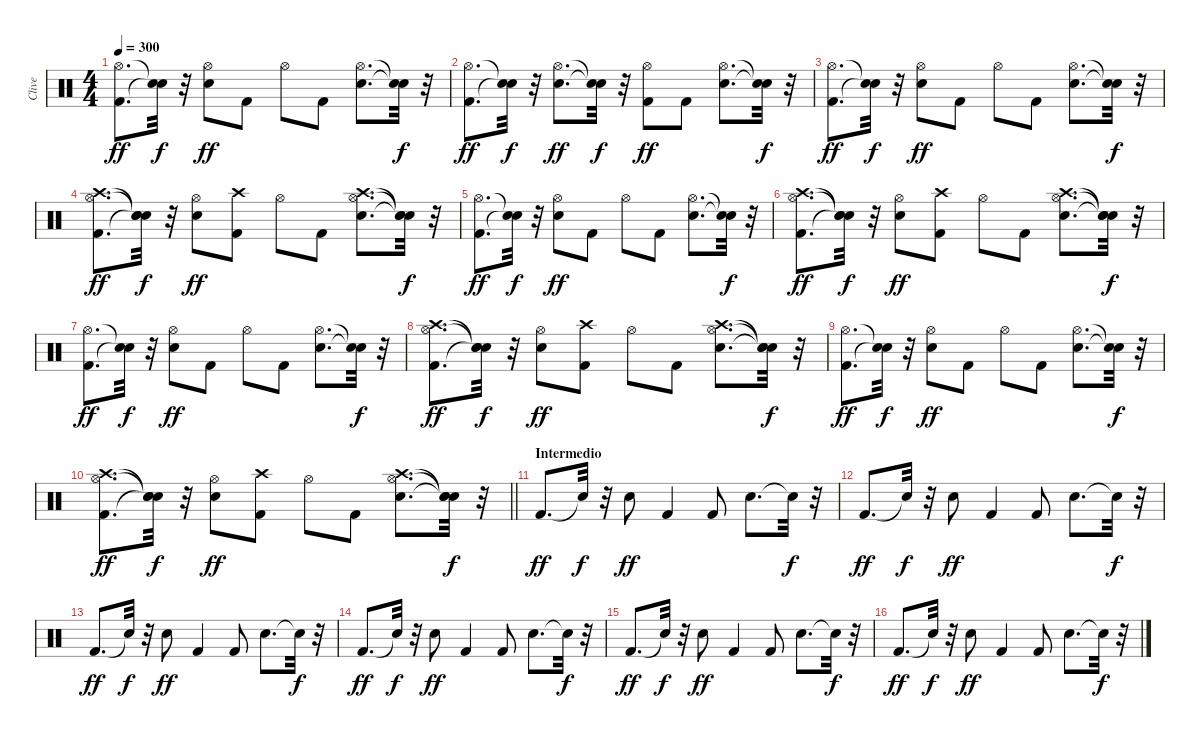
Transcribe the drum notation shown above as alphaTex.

\track ("Clive" "Clive") {instrument percussion}
\staff {score}
\articulation defaults
\ts (4 4)
\tempo 300
\clef neutral
\ks c
("Kick (hit) 2" "Hi-Hat (open)").8{d dy ff} ("Snare (hit)"{t} "Snare (hit)"{t}).32{dy f} r.32 ("Snare (hit) 2" "Hi-Hat (open)").8{dy ff} "Kick (hit) 2".8 "Hi-Hat (open)".8 "Kick (hit) 2".8 ("Snare (hit) 2" "Hi-Hat (open)").8{d} ("Snare (hit)"{t} "Snare (hit)"{t}).32{dy f} r.32 |
("Kick (hit) 2" "Hi-Hat (open)").8{d dy ff} ("Snare (hit)"{t} "Snare (hit)"{t}).32{dy f} r.32 ("Snare (hit) 2" "Hi-Hat (open)").8{d dy ff} ("Snare (hit)"{t} "Snare (hit)"{t}).32{dy f} r.32 ("Kick (hit) 2" "Hi-Hat (open)").8{dy ff} "Kick (hit) 2".8 ("Snare (hit) 2" "Hi-Hat (open)").8{d} ("Snare (hit)"{t} "Snare (hit)"{t}).32{dy f} r.32 |
("Kick (hit) 2" "Hi-Hat (open)").8{d dy ff} ("Snare (hit)"{t} "Snare (hit)"{t}).32{dy f} r.32 ("Snare (hit) 2" "Hi-Hat (open)").8{dy ff} "Kick (hit) 2".8 "Hi-Hat (open)".8 "Kick (hit) 2".8 ("Snare (hit) 2" "Hi-Hat (open)").8{d} ("Snare (hit)"{t} "Snare (hit)"{t}).32{dy f} r.32 |
("Kick (hit) 2" "Hi-Hat (open)" "Crash high (hit)").8{d dy ff} ("Snare (hit)"{t} "Snare (hit)"{t} "Snare (hit)"{t}).32{dy f} r.32 ("Snare (hit) 2" "Hi-Hat (open)").8{dy ff} ("Kick (hit) 2" "Crash high (hit)").8 "Hi-Hat (open)".8 "Kick (hit) 2".8 ("Snare (hit) 2" "Hi-Hat (open)" "Crash high (hit)").8{d} ("Snare (hit)"{t} "Snare (hit)"{t} "Snare (hit)"{t}).32{dy f} r.32 |
("Kick (hit) 2" "Hi-Hat (open)").8{d dy ff} ("Snare (hit)"{t} "Snare (hit)"{t}).32{dy f} r.32 ("Snare (hit) 2" "Hi-Hat (open)").8{dy ff} "Kick (hit) 2".8 "Hi-Hat (open)".8 "Kick (hit) 2".8 ("Snare (hit) 2" "Hi-Hat (open)").8{d} ("Snare (hit)"{t} "Snare (hit)"{t}).32{dy f} r.32 |
("Kick (hit) 2" "Hi-Hat (open)" "Crash high (hit)").8{d dy ff} ("Snare (hit)"{t} "Snare (hit)"{t} "Snare (hit)"{t}).32{dy f} r.32 ("Snare (hit) 2" "Hi-Hat (open)").8{dy ff} ("Kick (hit) 2" "Crash high (hit)").8 "Hi-Hat (open)".8 "Kick (hit) 2".8 ("Snare (hit) 2" "Hi-Hat (open)" "Crash high (hit)").8{d} ("Snare (hit)"{t} "Snare (hit)"{t} "Snare (hit)"{t}).32{dy f} r.32 |
("Kick (hit) 2" "Hi-Hat (open)").8{d dy ff} ("Snare (hit)"{t} "Snare (hit)"{t}).32{dy f} r.32 ("Snare (hit) 2" "Hi-Hat (open)").8{dy ff} "Kick (hit) 2".8 "Hi-Hat (open)".8 "Kick (hit) 2".8 ("Snare (hit) 2" "Hi-Hat (open)").8{d} ("Snare (hit)"{t} "Snare (hit)"{t}).32{dy f} r.32 |
("Kick (hit) 2" "Hi-Hat (open)" "Crash high (hit)").8{d dy ff} ("Snare (hit)"{t} "Snare (hit)"{t} "Snare (hit)"{t}).32{dy f} r.32 ("Snare (hit) 2" "Hi-Hat (open)").8{dy ff} ("Kick (hit) 2" "Crash high (hit)").8 "Hi-Hat (open)".8 "Kick (hit) 2".8 ("Snare (hit) 2" "Hi-Hat (open)" "Crash high (hit)").8{d} ("Snare (hit)"{t} "Snare (hit)"{t} "Snare (hit)"{t}).32{dy f} r.32 |
("Kick (hit) 2" "Hi-Hat (open)").8{d dy ff} ("Snare (hit)"{t} "Snare (hit)"{t}).32{dy f} r.32 ("Snare (hit) 2" "Hi-Hat (open)").8{dy ff} "Kick (hit) 2".8 "Hi-Hat (open)".8 "Kick (hit) 2".8 ("Snare (hit) 2" "Hi-Hat (open)").8{d} ("Snare (hit)"{t} "Snare (hit)"{t}).32{dy f} r.32 |
\barLineRight lightlight
("Kick (hit) 2" "Hi-Hat (open)" "Crash high (hit)").8{d dy ff} ("Snare (hit)"{t} "Snare (hit)"{t} "Snare (hit)"{t}).32{dy f} r.32 ("Snare (hit) 2" "Hi-Hat (open)").8{dy ff} ("Kick (hit) 2" "Crash high (hit)").8 "Hi-Hat (open)".8 "Kick (hit) 2".8 ("Snare (hit) 2" "Hi-Hat (open)" "Crash high (hit)").8{d} ("Snare (hit)"{t} "Snare (hit)"{t} "Snare (hit)"{t}).32{dy f} r.32 |
\section ("" "Intermedio ")
"Kick (hit) 2".8{d dy ff} "Snare (hit)"{t}.32{dy f} r.32 "Snare (hit) 2".8{dy ff} "Kick (hit) 2".4 "Kick (hit) 2".8 "Snare (hit) 2".8{d} "Snare (hit)"{t}.32{dy f} r.32 |
"Kick (hit) 2".8{d dy ff} "Snare (hit)"{t}.32{dy f} r.32 "Snare (hit) 2".8{dy ff} "Kick (hit) 2".4 "Kick (hit) 2".8 "Snare (hit) 2".8{d} "Snare (hit)"{t}.32{dy f} r.32 |
"Kick (hit) 2".8{d dy ff} "Snare (hit)"{t}.32{dy f} r.32 "Snare (hit) 2".8{dy ff} "Kick (hit) 2".4 "Kick (hit) 2".8 "Snare (hit) 2".8{d} "Snare (hit)"{t}.32{dy f} r.32 |
"Kick (hit) 2".8{d dy ff} "Snare (hit)"{t}.32{dy f} r.32 "Snare (hit) 2".8{dy ff} "Kick (hit) 2".4 "Kick (hit) 2".8 "Snare (hit) 2".8{d} "Snare (hit)"{t}.32{dy f} r.32 |
"Kick (hit) 2".8{d dy ff} "Snare (hit)"{t}.32{dy f} r.32 "Snare (hit) 2".8{dy ff} "Kick (hit) 2".4 "Kick (hit) 2".8 "Snare (hit) 2".8{d} "Snare (hit)"{t}.32{dy f} r.32 |
"Kick (hit) 2".8{d dy ff} "Snare (hit)"{t}.32{dy f} r.32 "Snare (hit) 2".8{dy ff} "Kick (hit) 2".4 "Kick (hit) 2".8 "Snare (hit) 2".8{d} "Snare (hit)"{t}.32{dy f} r.32
